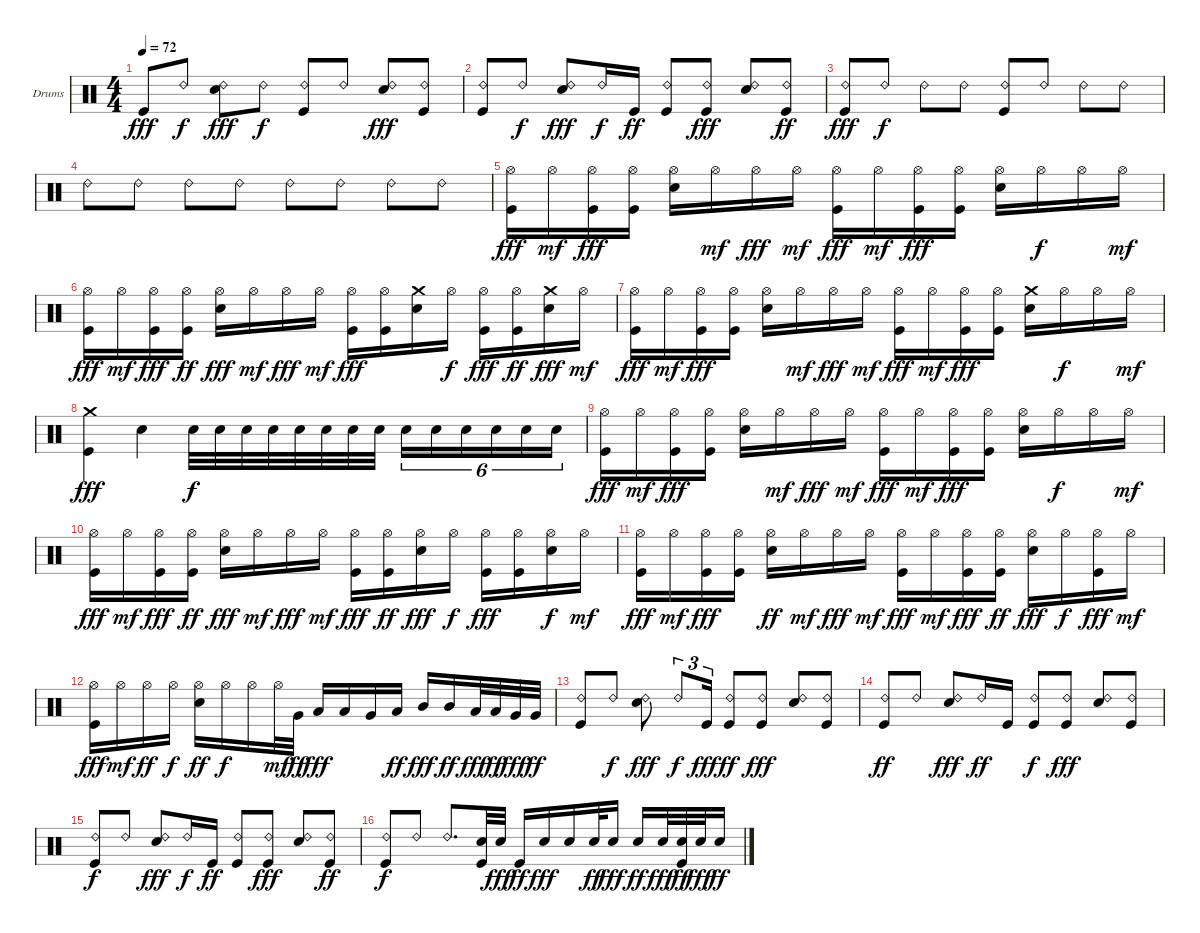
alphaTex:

\bracketExtendMode groupsimilarinstruments
\firstSystemTrackNameOrientation horizontal
\otherSystemsTrackNameOrientation horizontal
\track ("Drumkit" "Drums") {instrument percussion}
\staff {score}
\articulation defaults
\ts (4 4)
\tempo 72
\clef neutral
\ks c "Kick (hit)".8{dy fff} "Ride (bell) 2".8{dy f}
("Snare (hit) 2" "Ride (bell) 2").8{dy fff} "Ride (bell) 2".8{dy f} ("Ride (bell) 2" "Kick (hit)").8 "Ride (bell) 2".8 ("Snare (hit) 2" "Ride (bell) 2").8{dy fff} ("Kick (hit)" "Ride (bell) 2").8 |
("Kick (hit)" "Ride (bell) 2").8 "Ride (bell) 2".8{dy f} ("Snare (hit) 2" "Ride (bell) 2").8{dy fff} "Ride (bell) 2".16{dy f} "Kick (hit)".16{dy ff} ("Kick (hit)" "Ride (bell) 2").8 ("Kick (hit)" "Ride (bell) 2").8{dy fff} ("Snare (hit) 2" "Ride (bell) 2").8 ("Kick (hit)" "Ride (bell) 2").8{dy ff} |
("Kick (hit)" "Ride (bell) 2").8{dy fff} "Ride (bell) 2".8{dy f} "Ride (bell) 2".8 "Ride (bell) 2".8 ("Ride (bell) 2" "Kick (hit)").8 "Ride (bell) 2".8 "Ride (bell) 2".8 "Ride (bell) 2".8 |
"Ride (bell) 2".8 "Ride (bell) 2".8 "Ride (bell) 2".8 "Ride (bell) 2".8 "Ride (bell) 2".8 "Ride (bell) 2".8 "Ride (bell) 2".8 "Ride (bell) 2".8 |
("Kick (hit)" "Hi-Hat (open)").16{dy fff} "Hi-Hat (open)".16{dy mf} ("Kick (hit)" "Hi-Hat (open)").16{dy fff} ("Kick (hit)" "Hi-Hat (open)").16 ("Snare (hit) 2" "Hi-Hat (open)").16 "Hi-Hat (open)".16{dy mf} "Hi-Hat (open)".16{dy fff} "Hi-Hat (open)".16{dy mf} ("Kick (hit)" "Hi-Hat (open)").16{dy fff} "Hi-Hat (open)".16{dy mf} ("Kick (hit)" "Hi-Hat (open)").16{dy fff} ("Kick (hit)" "Hi-Hat (open)").16 ("Snare (hit) 2" "Hi-Hat (open)").16 "Hi-Hat (open)".16{dy f} "Hi-Hat (open)".16 "Hi-Hat (open)".16{dy mf} |
("Kick (hit)" "Hi-Hat (open)").16{dy fff} "Hi-Hat (open)".16{dy mf} ("Kick (hit)" "Hi-Hat (open)").16{dy fff} ("Kick (hit)" "Hi-Hat (open)").16{dy ff} ("Snare (hit) 2" "Hi-Hat (open)").16{dy fff} "Hi-Hat (open)".16{dy mf} "Hi-Hat (open)".16{dy fff} "Hi-Hat (open)".16{dy mf} ("Kick (hit)" "Hi-Hat (open)").16{dy fff} ("Kick (hit)" "Hi-Hat (open)").16 ("Snare (hit) 2" "Crash medium (hit)").16 "Hi-Hat (open)".16{dy f} ("Kick (hit)" "Hi-Hat (open)").16{dy fff} ("Kick (hit)" "Hi-Hat (open)").16{dy ff} ("Snare (hit) 2" "Crash medium (hit)").16{dy fff} "Hi-Hat (open)".16{dy mf} |
("Kick (hit)" "Hi-Hat (open)").16{dy fff} "Hi-Hat (open)".16{dy mf} ("Kick (hit)" "Hi-Hat (open)").16{dy fff} ("Kick (hit)" "Hi-Hat (open)").16 ("Snare (hit) 2" "Hi-Hat (open)").16 "Hi-Hat (open)".16{dy mf} "Hi-Hat (open)".16{dy fff} "Hi-Hat (open)".16{dy mf} ("Kick (hit)" "Hi-Hat (open)").16{dy fff} "Hi-Hat (open)".16{dy mf} ("Kick (hit)" "Hi-Hat (open)").16{dy fff} ("Kick (hit)" "Hi-Hat (open)").16 ("Snare (hit) 2" "Crash medium (hit)").16 "Hi-Hat (open)".16{dy f} "Hi-Hat (open)".16 "Hi-Hat (open)".16{dy mf} |
("Kick (hit)" "Crash medium (hit)").4{dy fff} "Snare (hit) 2".4 "Snare (hit) 2".32{dy f} "Snare (hit) 2".32 "Snare (hit) 2".32 "Snare (hit) 2".32 "Snare (hit) 2".32 "Snare (hit) 2".32 "Snare (hit) 2".32 "Snare (hit) 2".32 "Snare (hit) 2".16{tu (6 4)} "Snare (hit) 2".16{tu (6 4)} "Snare (hit) 2".16{tu (6 4)} "Snare (hit) 2".16{tu (6 4)} "Snare (hit) 2".16{tu (6 4)} "Snare (hit) 2".16{tu (6 4)} |
("Kick (hit)" "Hi-Hat (open)").16{dy fff} "Hi-Hat (open)".16{dy mf} ("Kick (hit)" "Hi-Hat (open)").16{dy fff} ("Kick (hit)" "Hi-Hat (open)").16 ("Snare (hit) 2" "Hi-Hat (open)").16 "Hi-Hat (open)".16{dy mf} "Hi-Hat (open)".16{dy fff} "Hi-Hat (open)".16{dy mf} ("Kick (hit)" "Hi-Hat (open)").16{dy fff} "Hi-Hat (open)".16{dy mf} ("Kick (hit)" "Hi-Hat (open)").16{dy fff} ("Kick (hit)" "Hi-Hat (open)").16 ("Snare (hit) 2" "Hi-Hat (open)").16 "Hi-Hat (open)".16{dy f} "Hi-Hat (open)".16 "Hi-Hat (open)".16{dy mf} |
("Kick (hit)" "Hi-Hat (open)").16{dy fff} "Hi-Hat (open)".16{dy mf} ("Kick (hit)" "Hi-Hat (open)").16{dy fff} ("Kick (hit)" "Hi-Hat (open)").16{dy ff} ("Snare (hit) 2" "Hi-Hat (open)").16{dy fff} "Hi-Hat (open)".16{dy mf} "Hi-Hat (open)".16{dy fff} "Hi-Hat (open)".16{dy mf} ("Kick (hit)" "Hi-Hat (open)").16{dy fff} ("Kick (hit)" "Hi-Hat (open)").16{dy ff} ("Snare (hit) 2" "Hi-Hat (open)").16{dy fff} "Hi-Hat (open)".16{dy f} ("Kick (hit)" "Hi-Hat (open)").16{dy fff} ("Kick (hit)" "Hi-Hat (open)").16 ("Hi-Hat (open)" "Snare (hit) 2").16{dy f} "Hi-Hat (open)".16{dy mf} |
("Kick (hit)" "Hi-Hat (open)").16{dy fff} "Hi-Hat (open)".16{dy mf} ("Kick (hit)" "Hi-Hat (open)").16{dy fff} ("Kick (hit)" "Hi-Hat (open)").16 ("Snare (hit) 2" "Hi-Hat (open)").16{dy ff} "Hi-Hat (open)".16{dy mf} "Hi-Hat (open)".16{dy fff} "Hi-Hat (open)".16{dy mf} ("Kick (hit)" "Hi-Hat (open)").16{dy fff} "Hi-Hat (open)".16{dy mf} ("Kick (hit)" "Hi-Hat (open)").16{dy fff} ("Kick (hit)" "Hi-Hat (open)").16{dy ff} ("Snare (hit) 2" "Hi-Hat (open)").16{dy fff} "Hi-Hat (open)".16{dy f} ("Kick (hit)" "Hi-Hat (open)").16{dy fff} "Hi-Hat (open)".16{dy mf} |
("Kick (hit)" "Hi-Hat (open)").16{dy fff} "Hi-Hat (open)".16{dy mf} "Hi-Hat (open)".16{dy ff} "Hi-Hat (open)".16{dy f} ("Hi-Hat (open)" "Snare (hit) 2").16{dy ff} "Hi-Hat (open)".16{dy f} "Hi-Hat (open)".16 "Hi-Hat (open)".32{dy mf} "Very Low Tom (hit)".32{dy ff} "Low Tom (hit)".16{dy fff} "Low Tom (hit)".16 "Very Low Tom (hit)".16 "Low Tom (hit)".16{dy ff} "Mid Tom (hit)".16{dy fff} "Mid Tom (hit)".16{dy ff} "Low Tom (hit)".32{dy fff} "Low Tom (hit)".32{dy ff} "Very Low Tom (hit)".32{dy fff} "Very Low Tom (hit)".32{dy ff} |
("Ride (bell) 2" "Kick (hit)").8 "Ride (bell) 2".8{dy f} ("Snare (hit) 2" "Ride (bell) 2").8{dy fff} "Ride (bell) 2".8{tu (3 2) dy f} "Kick (hit)".16{tu (3 2) dy fff} ("Ride (bell) 2" "Kick (hit)").8{dy ff} ("Kick (hit)" "Ride (bell) 2").8{dy fff} ("Snare (hit) 2" "Ride (bell) 2").8 ("Kick (hit)" "Ride (bell) 2").8 |
("Ride (bell) 2" "Kick (hit)").8{dy ff} "Ride (bell) 2".8 ("Snare (hit) 2" "Ride (bell) 2").8{dy fff} "Ride (bell) 2".16{dy ff} "Kick (hit)".16 ("Ride (bell) 2" "Kick (hit)").8{dy f} ("Kick (hit)" "Ride (bell) 2").8{dy fff} ("Snare (hit) 2" "Ride (bell) 2").8 ("Kick (hit)" "Ride (bell) 2").8 |
("Ride (bell) 2" "Kick (hit)").8{dy f} "Ride (bell) 2".8 ("Snare (hit) 2" "Ride (bell) 2").8{dy fff} "Ride (bell) 2".16{dy f} "Kick (hit)".16{dy ff} ("Kick (hit)" "Ride (bell) 2").8 ("Kick (hit)" "Ride (bell) 2").8{dy fff} ("Snare (hit) 2" "Ride (bell) 2").8 ("Kick (hit)" "Ride (bell) 2").8{dy ff} |
("Ride (bell) 2" "Kick (hit)").8{dy f} "Ride (bell) 2".8 "Ride (bell) 2".8{d} ("Kick (hit)" "Snare (hit) 2").32 "Snare (hit) 2".32{dy fff} "Kick (hit)".16{dy ff} "Snare (hit) 2".16{dy fff} "Snare (hit) 2".16 "Snare (hit) 2".32{dy ff} "Snare (hit) 2".16{dy fff} "Snare (hit) 2".16{dy ff} "Snare (hit) 2".32{dy fff} ("Kick (hit)" "Snare (hit) 2").32{dy ff} "Snare (hit) 2".32{dy fff} "Snare (hit) 2".16{dy ff}
